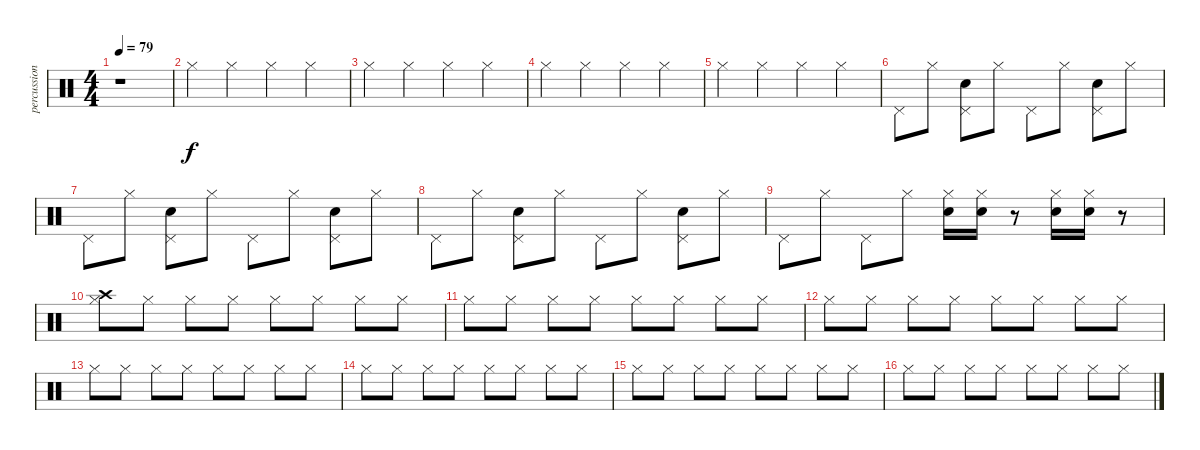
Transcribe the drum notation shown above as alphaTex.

\track ("percussion" "percussion") {instrument percussion}
\staff {score}
\articulation defaults
\ts (4 4)
\tempo 79
\clef neutral
\ks c
r.1{dy f} |
"Hi-Hat (closed)".4 "Hi-Hat (closed)".4 "Hi-Hat (closed)".4 "Hi-Hat (closed)".4 |
"Hi-Hat (closed)".4 "Hi-Hat (closed)".4 "Hi-Hat (closed)".4 "Hi-Hat (closed)".4 |
"Hi-Hat (closed)".4 "Hi-Hat (closed)".4 "Hi-Hat (closed)".4 "Hi-Hat (closed)".4 |
"Hi-Hat (closed)".4 "Hi-Hat (closed)".4 "Hi-Hat (closed)".4 "Hi-Hat (closed)".4 |
"Pedal Hi-Hat (hit)".8 "Hi-Hat (closed)".8 ("Pedal Hi-Hat (hit)" "Snare (hit) 2").8 "Hi-Hat (closed)".8 "Pedal Hi-Hat (hit)".8 "Hi-Hat (closed)".8 ("Pedal Hi-Hat (hit)" "Snare (hit) 2").8 "Hi-Hat (closed)".8 |
"Pedal Hi-Hat (hit)".8 "Hi-Hat (closed)".8 ("Pedal Hi-Hat (hit)" "Snare (hit) 2").8 "Hi-Hat (closed)".8 "Pedal Hi-Hat (hit)".8 "Hi-Hat (closed)".8 ("Pedal Hi-Hat (hit)" "Snare (hit) 2").8 "Hi-Hat (closed)".8 |
"Pedal Hi-Hat (hit)".8 "Hi-Hat (closed)".8 ("Pedal Hi-Hat (hit)" "Snare (hit) 2").8 "Hi-Hat (closed)".8 "Pedal Hi-Hat (hit)".8 "Hi-Hat (closed)".8 ("Pedal Hi-Hat (hit)" "Snare (hit) 2").8 "Hi-Hat (closed)".8 |
"Pedal Hi-Hat (hit)".8 "Hi-Hat (closed)".8 "Pedal Hi-Hat (hit)".8 "Hi-Hat (closed)".8 ("Hi-Hat (closed)" "Snare (hit) 2").16 ("Hi-Hat (closed)" "Snare (hit) 2").16 r.8 ("Hi-Hat (closed)" "Snare (hit) 2").16 ("Hi-Hat (closed)" "Snare (hit) 2").16 r.8 |
("Crash high (hit)" "Hi-Hat (closed)").8 "Hi-Hat (closed)".8 "Hi-Hat (closed)".8 "Hi-Hat (closed)".8 "Hi-Hat (closed)".8 "Hi-Hat (closed)".8 "Hi-Hat (closed)".8 "Hi-Hat (closed)".8 |
"Hi-Hat (closed)".8 "Hi-Hat (closed)".8 "Hi-Hat (closed)".8 "Hi-Hat (closed)".8 "Hi-Hat (closed)".8 "Hi-Hat (closed)".8 "Hi-Hat (closed)".8 "Hi-Hat (closed)".8 |
"Hi-Hat (closed)".8 "Hi-Hat (closed)".8 "Hi-Hat (closed)".8 "Hi-Hat (closed)".8 "Hi-Hat (closed)".8 "Hi-Hat (closed)".8 "Hi-Hat (closed)".8 "Hi-Hat (closed)".8 |
"Hi-Hat (closed)".8 "Hi-Hat (closed)".8 "Hi-Hat (closed)".8 "Hi-Hat (closed)".8 "Hi-Hat (closed)".8 "Hi-Hat (closed)".8 "Hi-Hat (closed)".8 "Hi-Hat (closed)".8 |
"Hi-Hat (closed)".8 "Hi-Hat (closed)".8 "Hi-Hat (closed)".8 "Hi-Hat (closed)".8 "Hi-Hat (closed)".8 "Hi-Hat (closed)".8 "Hi-Hat (closed)".8 "Hi-Hat (closed)".8 |
"Hi-Hat (closed)".8 "Hi-Hat (closed)".8 "Hi-Hat (closed)".8 "Hi-Hat (closed)".8 "Hi-Hat (closed)".8 "Hi-Hat (closed)".8 "Hi-Hat (closed)".8 "Hi-Hat (closed)".8 |
"Hi-Hat (closed)".8 "Hi-Hat (closed)".8 "Hi-Hat (closed)".8 "Hi-Hat (closed)".8 "Hi-Hat (closed)".8 "Hi-Hat (closed)".8 "Hi-Hat (closed)".8 "Hi-Hat (closed)".8
